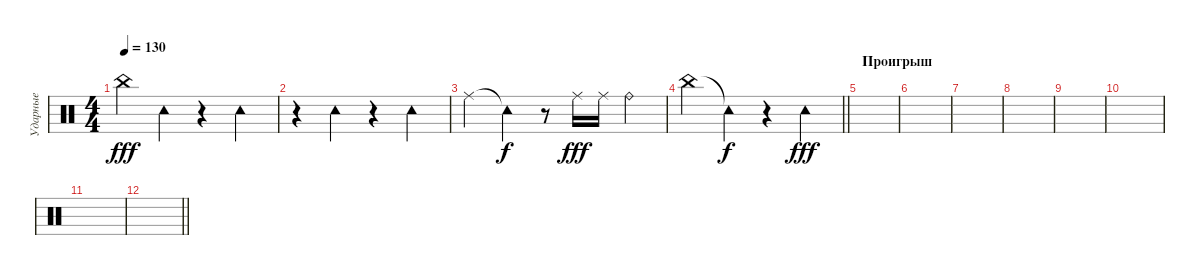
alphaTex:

\track ("Ударные" "Ударные") {instrument percussion}
\staff {score}
\articulation defaults
\ts (4 4)
\tempo 130
\clef neutral
\ks c "China (hit)".4{dy fff} "Tambourine (hit)".4
r.4 "Tambourine (hit)".4 |
r.4 "Tambourine (hit)".4 r.4 "Tambourine (hit)".4 |
"Ride (middle)".4 "Tambourine (hit)"{t}.4{dy f} r.8 "Ride (middle)".16{dy fff} "Ride (middle)".16 "Ride (bell)".4 |
\barLineRight lightlight "China (hit)".4 "Tambourine (hit)"{t}.4{dy f}
r.4 "Tambourine (hit)".4{dy fff} |
\section ("" "Проигрыш")
|
|
|
|
|
|
|
\barLineRight lightlight
